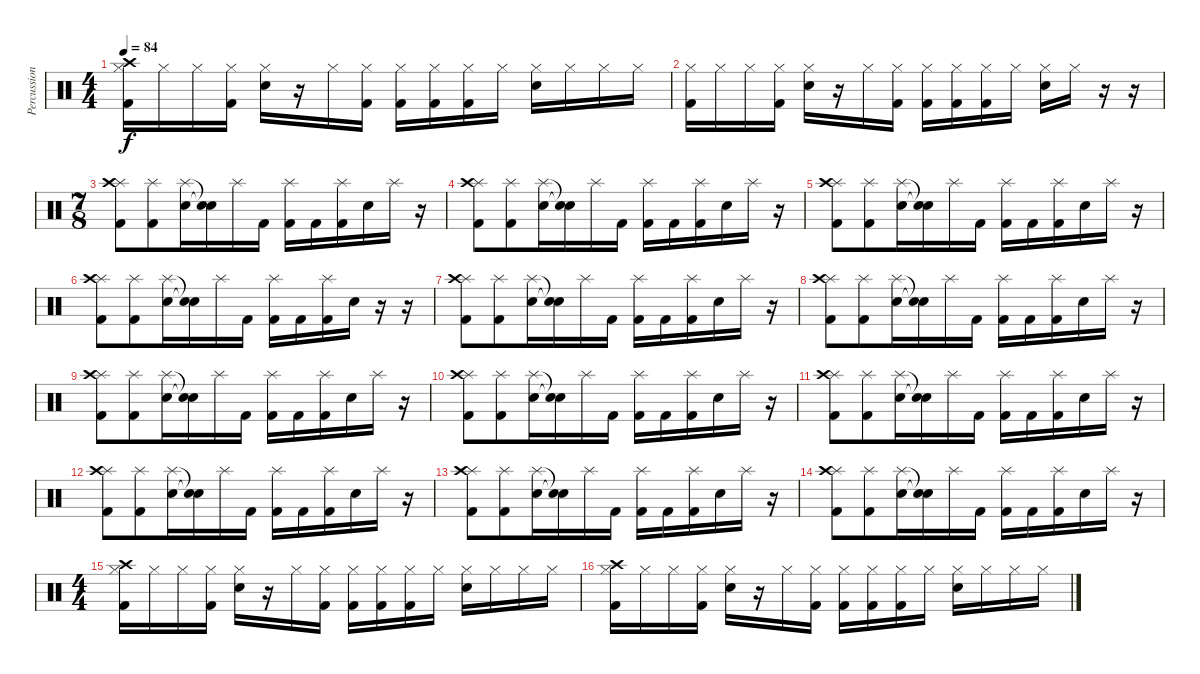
\track ("Percussions" "Percussion") {instrument percussion}
\staff {score}
\articulation defaults
\ts (4 4)
\tempo 84
\clef neutral
\ks c
("Kick (hit) 2" "Hi-Hat (closed)" "Crash high (hit)").16{dy f} "Hi-Hat (closed)".16 "Hi-Hat (closed)".16 ("Kick (hit) 2" "Hi-Hat (closed)").16 ("Electric Snare (hit)" "Hi-Hat (closed)").16 r.16 "Hi-Hat (closed)".16 ("Kick (hit) 2" "Hi-Hat (closed)").16 ("Kick (hit) 2" "Hi-Hat (closed)").16 ("Kick (hit) 2" "Hi-Hat (closed)").16 ("Kick (hit) 2" "Hi-Hat (closed)").16 "Hi-Hat (closed)".16 ("Electric Snare (hit)" "Hi-Hat (closed)").16 "Hi-Hat (closed)".16 "Hi-Hat (closed)".16 "Hi-Hat (closed)".16 |
("Kick (hit) 2" "Hi-Hat (closed)").16 "Hi-Hat (closed)".16 "Hi-Hat (closed)".16 ("Kick (hit) 2" "Hi-Hat (closed)").16 ("Electric Snare (hit)" "Hi-Hat (closed)").16 r.16 "Hi-Hat (closed)".16 ("Kick (hit) 2" "Hi-Hat (closed)").16 ("Kick (hit) 2" "Hi-Hat (closed)").16 ("Kick (hit) 2" "Hi-Hat (closed)").16 ("Kick (hit) 2" "Hi-Hat (closed)").16 "Hi-Hat (closed)".16 ("Electric Snare (hit)" "Hi-Hat (closed)").16 "Hi-Hat (closed)".16 r.16 r.16 |
\ts (7 8)
("Splash (hit)" "Kick (hit) 2" "Crash high (hit)").8 ("Kick (hit) 2" "Splash (hit)").8 ("Electric Snare (hit)" "Splash (hit)").16 ("Snare (hit)"{t} "Snare (hit)"{t}).16 "Splash (hit)".16 "Kick (hit) 2".16 ("Kick (hit) 2" "Splash (hit)").16 "Kick (hit) 2".16 ("Kick (hit) 2" "Splash (hit)").16 "Electric Snare (hit)".16 "Splash (hit)".16 r.16 |
("Splash (hit)" "Kick (hit) 2" "Crash high (hit)").8 ("Kick (hit) 2" "Splash (hit)").8 ("Electric Snare (hit)" "Splash (hit)").16 ("Snare (hit)"{t} "Snare (hit)"{t}).16 "Splash (hit)".16 "Kick (hit) 2".16 ("Kick (hit) 2" "Splash (hit)").16 "Kick (hit) 2".16 ("Kick (hit) 2" "Splash (hit)").16 "Electric Snare (hit)".16 "Splash (hit)".16 r.16 |
("Splash (hit)" "Kick (hit) 2" "Crash high (hit)").8 ("Kick (hit) 2" "Splash (hit)").8 ("Electric Snare (hit)" "Splash (hit)").16 ("Snare (hit)"{t} "Snare (hit)"{t}).16 "Splash (hit)".16 "Kick (hit) 2".16 ("Kick (hit) 2" "Splash (hit)").16 "Kick (hit) 2".16 ("Kick (hit) 2" "Splash (hit)").16 "Electric Snare (hit)".16 "Splash (hit)".16 r.16 |
("Splash (hit)" "Kick (hit) 2" "Crash high (hit)").8 ("Kick (hit) 2" "Splash (hit)").8 ("Electric Snare (hit)" "Splash (hit)").16 ("Snare (hit)"{t} "Snare (hit)"{t}).16 "Splash (hit)".16 "Kick (hit) 2".16 ("Kick (hit) 2" "Splash (hit)").16 "Kick (hit) 2".16 ("Kick (hit) 2" "Splash (hit)").16 "Electric Snare (hit)".16 r.16 r.16 |
("Splash (hit)" "Kick (hit) 2" "Crash high (hit)").8 ("Kick (hit) 2" "Splash (hit)").8 ("Electric Snare (hit)" "Splash (hit)").16 ("Snare (hit)"{t} "Snare (hit)"{t}).16 "Splash (hit)".16 "Kick (hit) 2".16 ("Kick (hit) 2" "Splash (hit)").16 "Kick (hit) 2".16 ("Kick (hit) 2" "Splash (hit)").16 "Electric Snare (hit)".16 "Splash (hit)".16 r.16 |
("Splash (hit)" "Kick (hit) 2" "Crash high (hit)").8 ("Kick (hit) 2" "Splash (hit)").8 ("Electric Snare (hit)" "Splash (hit)").16 ("Snare (hit)"{t} "Snare (hit)"{t}).16 "Splash (hit)".16 "Kick (hit) 2".16 ("Kick (hit) 2" "Splash (hit)").16 "Kick (hit) 2".16 ("Kick (hit) 2" "Splash (hit)").16 "Electric Snare (hit)".16 "Splash (hit)".16 r.16 |
("Splash (hit)" "Kick (hit) 2" "Crash high (hit)").8 ("Kick (hit) 2" "Splash (hit)").8 ("Electric Snare (hit)" "Splash (hit)").16 ("Snare (hit)"{t} "Snare (hit)"{t}).16 "Splash (hit)".16 "Kick (hit) 2".16 ("Kick (hit) 2" "Splash (hit)").16 "Kick (hit) 2".16 ("Kick (hit) 2" "Splash (hit)").16 "Electric Snare (hit)".16 "Splash (hit)".16 r.16 |
("Splash (hit)" "Kick (hit) 2" "Crash high (hit)").8 ("Kick (hit) 2" "Splash (hit)").8 ("Electric Snare (hit)" "Splash (hit)").16 ("Snare (hit)"{t} "Snare (hit)"{t}).16 "Splash (hit)".16 "Kick (hit) 2".16 ("Kick (hit) 2" "Splash (hit)").16 "Kick (hit) 2".16 ("Kick (hit) 2" "Splash (hit)").16 "Electric Snare (hit)".16 "Splash (hit)".16 r.16 |
("Splash (hit)" "Kick (hit) 2" "Crash high (hit)").8 ("Kick (hit) 2" "Splash (hit)").8 ("Electric Snare (hit)" "Splash (hit)").16 ("Snare (hit)"{t} "Snare (hit)"{t}).16 "Splash (hit)".16 "Kick (hit) 2".16 ("Kick (hit) 2" "Splash (hit)").16 "Kick (hit) 2".16 ("Kick (hit) 2" "Splash (hit)").16 "Electric Snare (hit)".16 "Splash (hit)".16 r.16 |
("Splash (hit)" "Kick (hit) 2" "Crash high (hit)").8 ("Kick (hit) 2" "Splash (hit)").8 ("Electric Snare (hit)" "Splash (hit)").16 ("Snare (hit)"{t} "Snare (hit)"{t}).16 "Splash (hit)".16 "Kick (hit) 2".16 ("Kick (hit) 2" "Splash (hit)").16 "Kick (hit) 2".16 ("Kick (hit) 2" "Splash (hit)").16 "Electric Snare (hit)".16 "Splash (hit)".16 r.16 |
("Splash (hit)" "Kick (hit) 2" "Crash high (hit)").8 ("Kick (hit) 2" "Splash (hit)").8 ("Electric Snare (hit)" "Splash (hit)").16 ("Snare (hit)"{t} "Snare (hit)"{t}).16 "Splash (hit)".16 "Kick (hit) 2".16 ("Kick (hit) 2" "Splash (hit)").16 "Kick (hit) 2".16 ("Kick (hit) 2" "Splash (hit)").16 "Electric Snare (hit)".16 "Splash (hit)".16 r.16 |
("Splash (hit)" "Kick (hit) 2" "Crash high (hit)").8 ("Kick (hit) 2" "Splash (hit)").8 ("Electric Snare (hit)" "Splash (hit)").16 ("Snare (hit)"{t} "Snare (hit)"{t}).16 "Splash (hit)".16 "Kick (hit) 2".16 ("Kick (hit) 2" "Splash (hit)").16 "Kick (hit) 2".16 ("Kick (hit) 2" "Splash (hit)").16 "Electric Snare (hit)".16 "Splash (hit)".16 r.16 |
\ts (4 4)
("Kick (hit) 2" "Hi-Hat (closed)" "Crash high (hit)").16 "Hi-Hat (closed)".16 "Hi-Hat (closed)".16 ("Kick (hit) 2" "Hi-Hat (closed)").16 ("Electric Snare (hit)" "Hi-Hat (closed)").16 r.16 "Hi-Hat (closed)".16 ("Kick (hit) 2" "Hi-Hat (closed)").16 ("Kick (hit) 2" "Hi-Hat (closed)").16 ("Kick (hit) 2" "Hi-Hat (closed)").16 ("Kick (hit) 2" "Hi-Hat (closed)").16 "Hi-Hat (closed)".16 ("Electric Snare (hit)" "Hi-Hat (closed)").16 "Hi-Hat (closed)".16 "Hi-Hat (closed)".16 "Hi-Hat (closed)".16 |
("Kick (hit) 2" "Hi-Hat (closed)" "Crash high (hit)").16 "Hi-Hat (closed)".16 "Hi-Hat (closed)".16 ("Kick (hit) 2" "Hi-Hat (closed)").16 ("Electric Snare (hit)" "Hi-Hat (closed)").16 r.16 "Hi-Hat (closed)".16 ("Kick (hit) 2" "Hi-Hat (closed)").16 ("Kick (hit) 2" "Hi-Hat (closed)").16 ("Kick (hit) 2" "Hi-Hat (closed)").16 ("Kick (hit) 2" "Hi-Hat (closed)").16 "Hi-Hat (closed)".16 ("Electric Snare (hit)" "Hi-Hat (closed)").16 "Hi-Hat (closed)".16 "Hi-Hat (closed)".16 "Hi-Hat (closed)".16
